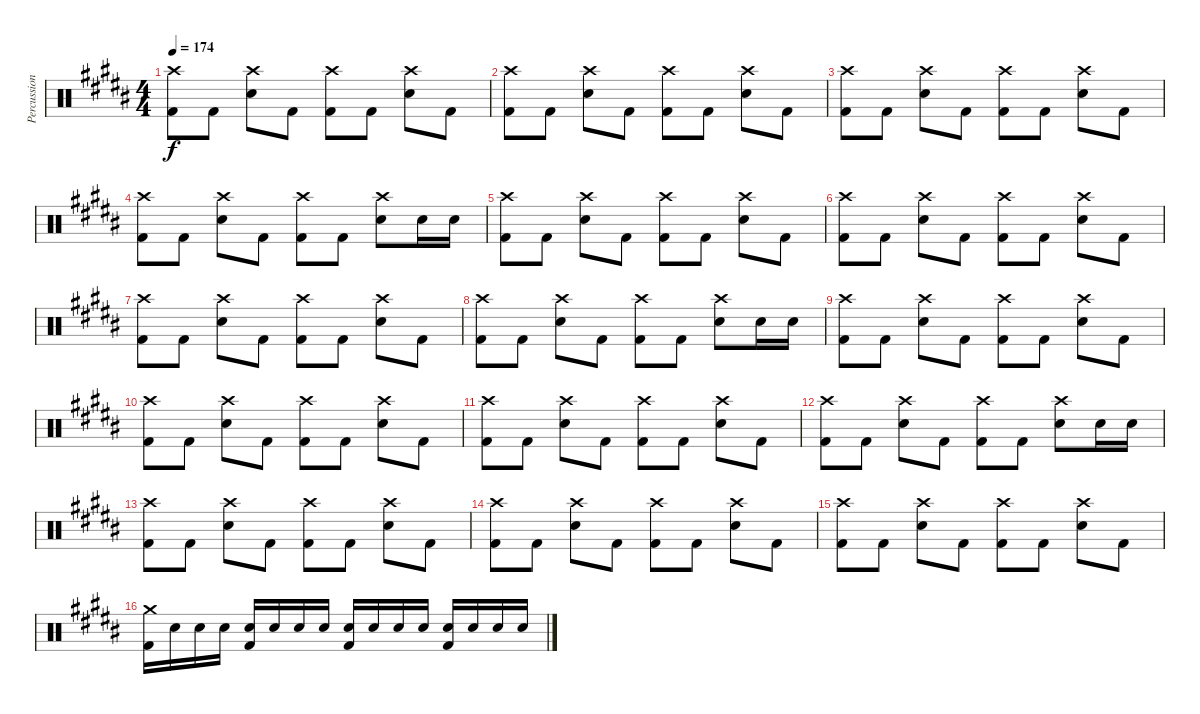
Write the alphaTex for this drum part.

\track ("Percussion" "Percussion") {instrument percussion}
\staff {score}
\articulation defaults
\ts (4 4)
\tempo 174
\clef neutral
\ks b
("Crash high (hit)" "Kick (hit) 2").8{dy f} "Kick (hit) 2".8 ("Crash high (hit)" "Electric Snare (hit)").8 "Kick (hit) 2".8 ("Crash high (hit)" "Kick (hit) 2").8 "Kick (hit) 2".8 ("Crash high (hit)" "Electric Snare (hit)").8 "Kick (hit) 2".8 |
("Crash high (hit)" "Kick (hit) 2").8 "Kick (hit) 2".8 ("Crash high (hit)" "Electric Snare (hit)").8 "Kick (hit) 2".8 ("Crash high (hit)" "Kick (hit) 2").8 "Kick (hit) 2".8 ("Crash high (hit)" "Electric Snare (hit)").8 "Kick (hit) 2".8 |
("Crash high (hit)" "Kick (hit) 2").8 "Kick (hit) 2".8 ("Crash high (hit)" "Electric Snare (hit)").8 "Kick (hit) 2".8 ("Crash high (hit)" "Kick (hit) 2").8 "Kick (hit) 2".8 ("Crash high (hit)" "Electric Snare (hit)").8 "Kick (hit) 2".8 |
("Crash high (hit)" "Kick (hit) 2").8 "Kick (hit) 2".8 ("Crash high (hit)" "Electric Snare (hit)").8 "Kick (hit) 2".8 ("Crash high (hit)" "Kick (hit) 2").8 "Kick (hit) 2".8 ("Crash high (hit)" "Electric Snare (hit)").8 "Electric Snare (hit)".16 "Electric Snare (hit)".16 |
("Crash high (hit)" "Kick (hit) 2").8 "Kick (hit) 2".8 ("Crash high (hit)" "Electric Snare (hit)").8 "Kick (hit) 2".8 ("Crash high (hit)" "Kick (hit) 2").8 "Kick (hit) 2".8 ("Crash high (hit)" "Electric Snare (hit)").8 "Kick (hit) 2".8 |
("Crash high (hit)" "Kick (hit) 2").8 "Kick (hit) 2".8 ("Crash high (hit)" "Electric Snare (hit)").8 "Kick (hit) 2".8 ("Crash high (hit)" "Kick (hit) 2").8 "Kick (hit) 2".8 ("Crash high (hit)" "Electric Snare (hit)").8 "Kick (hit) 2".8 |
("Crash high (hit)" "Kick (hit) 2").8 "Kick (hit) 2".8 ("Crash high (hit)" "Electric Snare (hit)").8 "Kick (hit) 2".8 ("Crash high (hit)" "Kick (hit) 2").8 "Kick (hit) 2".8 ("Crash high (hit)" "Electric Snare (hit)").8 "Kick (hit) 2".8 |
("Crash high (hit)" "Kick (hit) 2").8 "Kick (hit) 2".8 ("Crash high (hit)" "Electric Snare (hit)").8 "Kick (hit) 2".8 ("Crash high (hit)" "Kick (hit) 2").8 "Kick (hit) 2".8 ("Crash high (hit)" "Electric Snare (hit)").8 "Electric Snare (hit)".16 "Electric Snare (hit)".16 |
("Crash high (hit)" "Kick (hit) 2").8 "Kick (hit) 2".8 ("Crash high (hit)" "Electric Snare (hit)").8 "Kick (hit) 2".8 ("Crash high (hit)" "Kick (hit) 2").8 "Kick (hit) 2".8 ("Crash high (hit)" "Electric Snare (hit)").8 "Kick (hit) 2".8 |
("Crash high (hit)" "Kick (hit) 2").8 "Kick (hit) 2".8 ("Crash high (hit)" "Electric Snare (hit)").8 "Kick (hit) 2".8 ("Crash high (hit)" "Kick (hit) 2").8 "Kick (hit) 2".8 ("Crash high (hit)" "Electric Snare (hit)").8 "Kick (hit) 2".8 |
("Crash high (hit)" "Kick (hit) 2").8 "Kick (hit) 2".8 ("Crash high (hit)" "Electric Snare (hit)").8 "Kick (hit) 2".8 ("Crash high (hit)" "Kick (hit) 2").8 "Kick (hit) 2".8 ("Crash high (hit)" "Electric Snare (hit)").8 "Kick (hit) 2".8 |
("Crash high (hit)" "Kick (hit) 2").8 "Kick (hit) 2".8 ("Crash high (hit)" "Electric Snare (hit)").8 "Kick (hit) 2".8 ("Crash high (hit)" "Kick (hit) 2").8 "Kick (hit) 2".8 ("Crash high (hit)" "Electric Snare (hit)").8 "Electric Snare (hit)".16 "Electric Snare (hit)".16 |
("Crash high (hit)" "Kick (hit) 2").8 "Kick (hit) 2".8 ("Crash high (hit)" "Electric Snare (hit)").8 "Kick (hit) 2".8 ("Crash high (hit)" "Kick (hit) 2").8 "Kick (hit) 2".8 ("Crash high (hit)" "Electric Snare (hit)").8 "Kick (hit) 2".8 |
("Crash high (hit)" "Kick (hit) 2").8 "Kick (hit) 2".8 ("Crash high (hit)" "Electric Snare (hit)").8 "Kick (hit) 2".8 ("Crash high (hit)" "Kick (hit) 2").8 "Kick (hit) 2".8 ("Crash high (hit)" "Electric Snare (hit)").8 "Kick (hit) 2".8 |
("Crash high (hit)" "Kick (hit) 2").8 "Kick (hit) 2".8 ("Crash high (hit)" "Electric Snare (hit)").8 "Kick (hit) 2".8 ("Crash high (hit)" "Kick (hit) 2").8 "Kick (hit) 2".8 ("Crash high (hit)" "Electric Snare (hit)").8 "Kick (hit) 2".8 |
("Crash medium (hit)" "Kick (hit) 2").16 "Electric Snare (hit)".16 "Electric Snare (hit)".16 "Electric Snare (hit)".16 ("Electric Snare (hit)" "Kick (hit) 2").16 "Electric Snare (hit)".16 "Electric Snare (hit)".16 "Electric Snare (hit)".16 ("Electric Snare (hit)" "Kick (hit) 2").16 "Electric Snare (hit)".16 "Electric Snare (hit)".16 "Electric Snare (hit)".16 ("Electric Snare (hit)" "Kick (hit) 2").16 "Electric Snare (hit)".16 "Electric Snare (hit)".16 "Electric Snare (hit)".16
